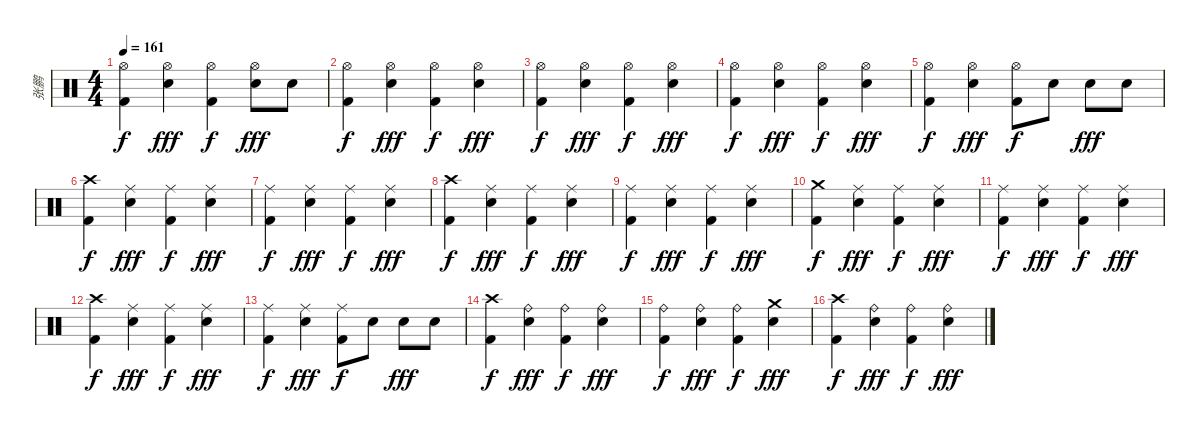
\track ("张鹏" "张鹏") {instrument percussion}
\staff {score}
\articulation defaults
\ts (4 4)
\tempo 161
\clef neutral
\ks c
("Hi-Hat (open)" "Kick (hit) 2").4{dy f} ("Hi-Hat (open)" "Electric Snare (hit)").4{dy fff} ("Hi-Hat (open)" "Kick (hit) 2").4{dy f} ("Hi-Hat (open)" "Electric Snare (hit)").8{dy fff} "Electric Snare (hit)".8 |
("Hi-Hat (open)" "Kick (hit) 2").4{dy f} ("Hi-Hat (open)" "Electric Snare (hit)").4{dy fff} ("Hi-Hat (open)" "Kick (hit) 2").4{dy f} ("Hi-Hat (open)" "Electric Snare (hit)").4{dy fff} |
("Hi-Hat (open)" "Kick (hit) 2").4{dy f} ("Hi-Hat (open)" "Electric Snare (hit)").4{dy fff} ("Hi-Hat (open)" "Kick (hit) 2").4{dy f} ("Hi-Hat (open)" "Electric Snare (hit)").4{dy fff} |
("Hi-Hat (open)" "Kick (hit) 2").4{dy f} ("Hi-Hat (open)" "Electric Snare (hit)").4{dy fff} ("Hi-Hat (open)" "Kick (hit) 2").4{dy f} ("Hi-Hat (open)" "Electric Snare (hit)").4{dy fff} |
("Hi-Hat (open)" "Kick (hit) 2").4{dy f} ("Hi-Hat (open)" "Electric Snare (hit)").4{dy fff} ("Hi-Hat (open)" "Kick (hit) 2").8{dy f} "Electric Snare (hit)".8 "Electric Snare (hit)".8{dy fff} "Electric Snare (hit)".8 |
("Crash high (hit)" "Kick (hit) 2").4{dy f} ("Ride (middle)" "Electric Snare (hit)").4{dy fff} ("Ride (middle)" "Kick (hit) 2").4{dy f} ("Ride (middle)" "Electric Snare (hit)").4{dy fff} |
("Ride (middle)" "Kick (hit) 2").4{dy f} ("Ride (middle)" "Electric Snare (hit)").4{dy fff} ("Ride (middle)" "Kick (hit) 2").4{dy f} ("Ride (middle)" "Electric Snare (hit)").4{dy fff} |
("Crash high (hit)" "Kick (hit) 2").4{dy f} ("Ride (middle)" "Electric Snare (hit)").4{dy fff} ("Ride (middle)" "Kick (hit) 2").4{dy f} ("Ride (middle)" "Electric Snare (hit)").4{dy fff} |
("Ride (middle)" "Kick (hit) 2").4{dy f} ("Ride (middle)" "Electric Snare (hit)").4{dy fff} ("Ride (middle)" "Kick (hit) 2").4{dy f} ("Ride (middle)" "Electric Snare (hit)").4{dy fff} |
("Crash medium (hit)" "Kick (hit) 2").4{dy f} ("Ride (middle)" "Electric Snare (hit)").4{dy fff} ("Ride (middle)" "Kick (hit) 2").4{dy f} ("Ride (middle)" "Electric Snare (hit)").4{dy fff} |
("Ride (middle)" "Kick (hit) 2").4{dy f} ("Ride (middle)" "Electric Snare (hit)").4{dy fff} ("Ride (middle)" "Kick (hit) 2").4{dy f} ("Ride (middle)" "Electric Snare (hit)").4{dy fff} |
("Crash high (hit)" "Kick (hit) 2").4{dy f} ("Ride (middle)" "Electric Snare (hit)").4{dy fff} ("Ride (middle)" "Kick (hit) 2").4{dy f} ("Ride (middle)" "Electric Snare (hit)").4{dy fff} |
("Ride (middle)" "Kick (hit) 2").4{dy f} ("Ride (middle)" "Electric Snare (hit)").4{dy fff} ("Ride (middle)" "Kick (hit) 2").8{dy f} "Electric Snare (hit)".8 "Electric Snare (hit)".8{dy fff} "Electric Snare (hit)".8 |
("Crash high (hit)" "Kick (hit) 2").4{dy f} ("Ride (bell)" "Electric Snare (hit)").4{dy fff} ("Ride (bell)" "Kick (hit) 2").4{dy f} ("Ride (bell)" "Electric Snare (hit)").4{dy fff} |
("Ride (bell)" "Kick (hit) 2").4{dy f} ("Ride (bell)" "Electric Snare (hit)").4{dy fff} ("Ride (bell)" "Kick (hit) 2").4{dy f} ("Crash medium (hit)" "Electric Snare (hit)").4{dy fff} |
("Crash high (hit)" "Kick (hit) 2").4{dy f} ("Ride (bell)" "Electric Snare (hit)").4{dy fff} ("Ride (bell)" "Kick (hit) 2").4{dy f} ("Ride (bell)" "Electric Snare (hit)").4{dy fff}
